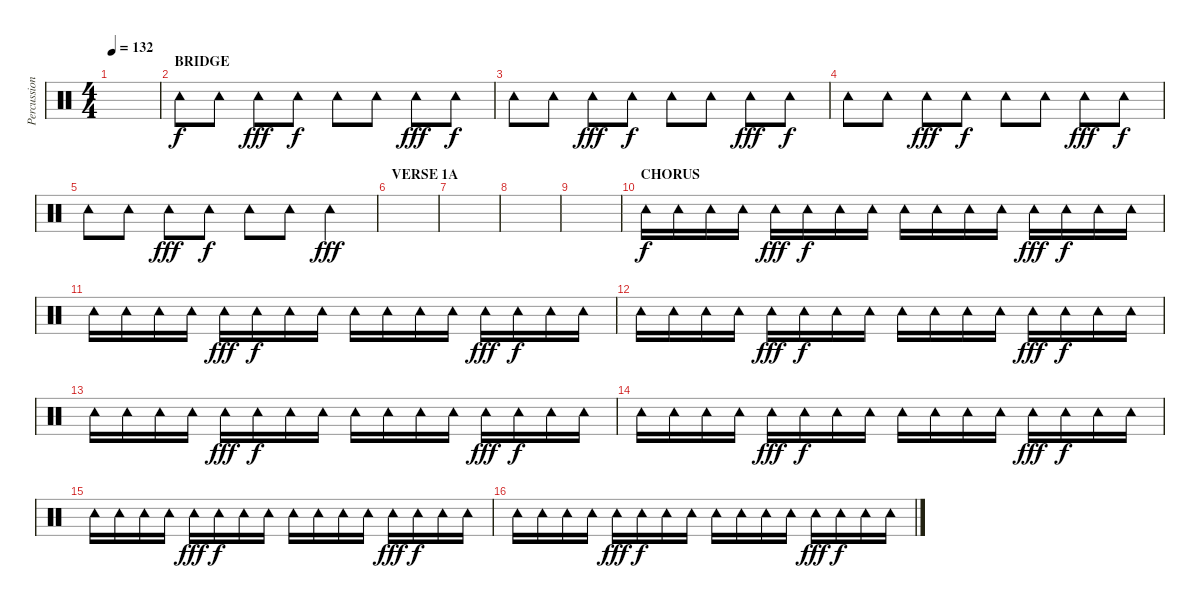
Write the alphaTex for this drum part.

\track ("Percussion" "Percussion") {instrument percussion}
\staff {score}
\articulation defaults
\ts (4 4)
\tempo 132
\clef neutral
\ks c
|
\section ("" "BRIDGE")
"Tambourine (hit)".8 "Tambourine (hit)".8 "Tambourine (hit)".8{dy fff} "Tambourine (hit)".8{dy f} "Tambourine (hit)".8 "Tambourine (hit)".8 "Tambourine (hit)".8{dy fff} "Tambourine (hit)".8{dy f} |
"Tambourine (hit)".8 "Tambourine (hit)".8 "Tambourine (hit)".8{dy fff} "Tambourine (hit)".8{dy f} "Tambourine (hit)".8 "Tambourine (hit)".8 "Tambourine (hit)".8{dy fff} "Tambourine (hit)".8{dy f} |
"Tambourine (hit)".8 "Tambourine (hit)".8 "Tambourine (hit)".8{dy fff} "Tambourine (hit)".8{dy f} "Tambourine (hit)".8 "Tambourine (hit)".8 "Tambourine (hit)".8{dy fff} "Tambourine (hit)".8{dy f} |
"Tambourine (hit)".8 "Tambourine (hit)".8 "Tambourine (hit)".8{dy fff} "Tambourine (hit)".8{dy f} "Tambourine (hit)".8 "Tambourine (hit)".8 "Tambourine (hit)".4{dy fff} |
\section ("" "VERSE 1A")
|
|
|
|
\section ("" "CHORUS")
"Tambourine (hit)".16{dy f} "Tambourine (hit)".16 "Tambourine (hit)".16 "Tambourine (hit)".16 "Tambourine (hit)".16{dy fff} "Tambourine (hit)".16{dy f} "Tambourine (hit)".16 "Tambourine (hit)".16 "Tambourine (hit)".16 "Tambourine (hit)".16 "Tambourine (hit)".16 "Tambourine (hit)".16 "Tambourine (hit)".16{dy fff} "Tambourine (hit)".16{dy f} "Tambourine (hit)".16 "Tambourine (hit)".16 |
"Tambourine (hit)".16 "Tambourine (hit)".16 "Tambourine (hit)".16 "Tambourine (hit)".16 "Tambourine (hit)".16{dy fff} "Tambourine (hit)".16{dy f} "Tambourine (hit)".16 "Tambourine (hit)".16 "Tambourine (hit)".16 "Tambourine (hit)".16 "Tambourine (hit)".16 "Tambourine (hit)".16 "Tambourine (hit)".16{dy fff} "Tambourine (hit)".16{dy f} "Tambourine (hit)".16 "Tambourine (hit)".16 |
"Tambourine (hit)".16 "Tambourine (hit)".16 "Tambourine (hit)".16 "Tambourine (hit)".16 "Tambourine (hit)".16{dy fff} "Tambourine (hit)".16{dy f} "Tambourine (hit)".16 "Tambourine (hit)".16 "Tambourine (hit)".16 "Tambourine (hit)".16 "Tambourine (hit)".16 "Tambourine (hit)".16 "Tambourine (hit)".16{dy fff} "Tambourine (hit)".16{dy f} "Tambourine (hit)".16 "Tambourine (hit)".16 |
"Tambourine (hit)".16 "Tambourine (hit)".16 "Tambourine (hit)".16 "Tambourine (hit)".16 "Tambourine (hit)".16{dy fff} "Tambourine (hit)".16{dy f} "Tambourine (hit)".16 "Tambourine (hit)".16 "Tambourine (hit)".16 "Tambourine (hit)".16 "Tambourine (hit)".16 "Tambourine (hit)".16 "Tambourine (hit)".16{dy fff} "Tambourine (hit)".16{dy f} "Tambourine (hit)".16 "Tambourine (hit)".16 |
"Tambourine (hit)".16 "Tambourine (hit)".16 "Tambourine (hit)".16 "Tambourine (hit)".16 "Tambourine (hit)".16{dy fff} "Tambourine (hit)".16{dy f} "Tambourine (hit)".16 "Tambourine (hit)".16 "Tambourine (hit)".16 "Tambourine (hit)".16 "Tambourine (hit)".16 "Tambourine (hit)".16 "Tambourine (hit)".16{dy fff} "Tambourine (hit)".16{dy f} "Tambourine (hit)".16 "Tambourine (hit)".16 |
"Tambourine (hit)".16 "Tambourine (hit)".16 "Tambourine (hit)".16 "Tambourine (hit)".16 "Tambourine (hit)".16{dy fff} "Tambourine (hit)".16{dy f} "Tambourine (hit)".16 "Tambourine (hit)".16 "Tambourine (hit)".16 "Tambourine (hit)".16 "Tambourine (hit)".16 "Tambourine (hit)".16 "Tambourine (hit)".16{dy fff} "Tambourine (hit)".16{dy f} "Tambourine (hit)".16 "Tambourine (hit)".16 |
"Tambourine (hit)".16 "Tambourine (hit)".16 "Tambourine (hit)".16 "Tambourine (hit)".16 "Tambourine (hit)".16{dy fff} "Tambourine (hit)".16{dy f} "Tambourine (hit)".16 "Tambourine (hit)".16 "Tambourine (hit)".16 "Tambourine (hit)".16 "Tambourine (hit)".16 "Tambourine (hit)".16 "Tambourine (hit)".16{dy fff} "Tambourine (hit)".16{dy f} "Tambourine (hit)".16 "Tambourine (hit)".16
